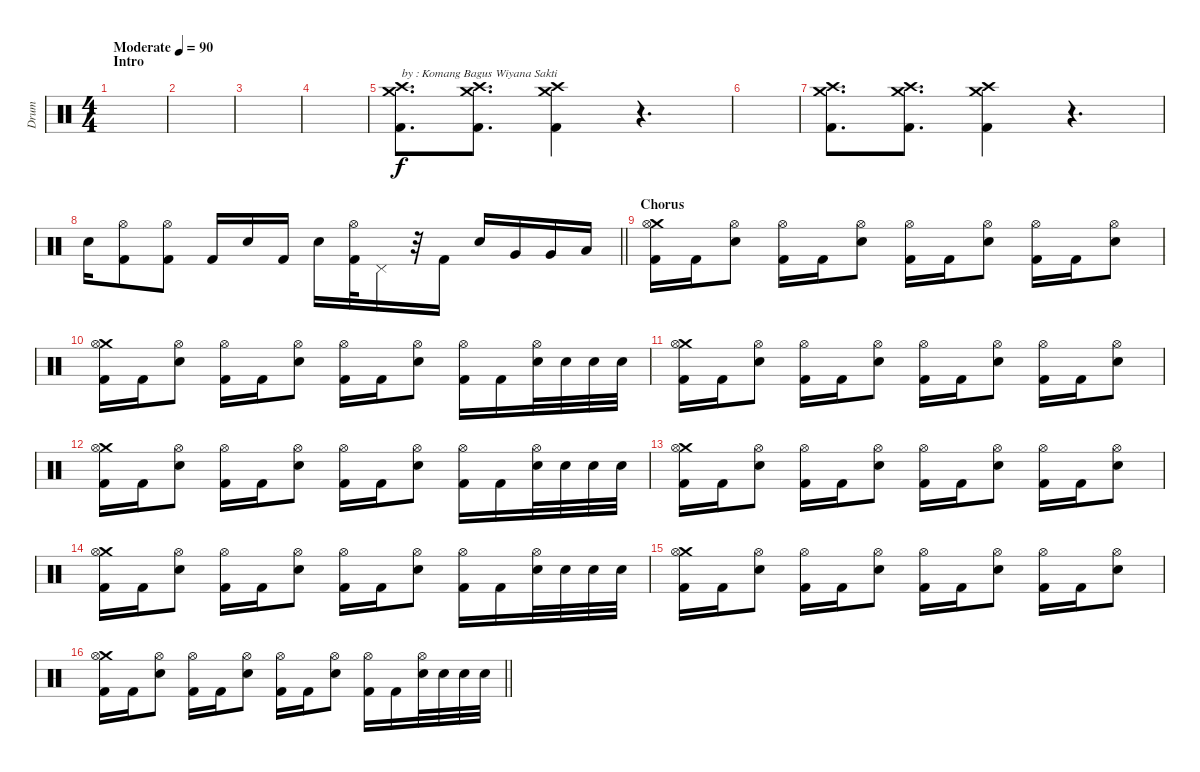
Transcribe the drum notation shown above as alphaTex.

\track ("Drum" "Drum") {instrument percussion}
\staff {score}
\articulation defaults
\ts (4 4)
\section ("" "Intro")
\tempo (90 "Moderate")
\clef neutral
\ks c
|
|
|
|
("Crash medium (hit)" "Crash high (hit)" "Kick (hit) 2").8{d txt "by : Komang Bagus Wiyana Sakti"} ("Crash medium (hit)" "Crash high (hit)" "Kick (hit) 2").8{d} ("Crash medium (hit)" "Crash high (hit)" "Kick (hit) 2").4 r.4{d} |
|
("Crash medium (hit)" "Crash high (hit)" "Kick (hit) 2").8{d} ("Crash medium (hit)" "Crash high (hit)" "Kick (hit) 2").8{d} ("Crash medium (hit)" "Crash high (hit)" "Kick (hit) 2").4 r.4{d} |
\barLineRight lightlight "Electric Snare (hit)".16
("Hi-Hat (open)" "Kick (hit) 2").8 ("Hi-Hat (open)" "Kick (hit) 2").8 "Kick (hit) 2".16 "Electric Snare (hit)".16 "Kick (hit) 2".16 "Electric Snare (hit)".16 ("Hi-Hat (open)" "Kick (hit) 2").32 "Pedal Hi-Hat (hit)".16 r.32 "Kick (hit) 2".16 "Electric Snare (hit)".16 "Very Low Tom (hit)".16 "Very Low Tom (hit)".16 "Low Tom (hit)".16 |
\section ("" "Chorus")
("Crash medium (hit)" "Hi-Hat (open)" "Kick (hit) 2").16 "Kick (hit) 2".16 ("Hi-Hat (open)" "Electric Snare (hit)").8 ("Hi-Hat (open)" "Kick (hit) 2").16 "Kick (hit) 2".16 ("Hi-Hat (open)" "Electric Snare (hit)").8 ("Hi-Hat (open)" "Kick (hit) 2").16 "Kick (hit) 2".16 ("Hi-Hat (open)" "Electric Snare (hit)").8 ("Hi-Hat (open)" "Kick (hit) 2").16 "Kick (hit) 2".16 ("Hi-Hat (open)" "Electric Snare (hit)").8 |
("Crash medium (hit)" "Hi-Hat (open)" "Kick (hit) 2").16 "Kick (hit) 2".16 ("Hi-Hat (open)" "Electric Snare (hit)").8 ("Hi-Hat (open)" "Kick (hit) 2").16 "Kick (hit) 2".16 ("Hi-Hat (open)" "Electric Snare (hit)").8 ("Hi-Hat (open)" "Kick (hit) 2").16 "Kick (hit) 2".16 ("Hi-Hat (open)" "Electric Snare (hit)").8 ("Hi-Hat (open)" "Kick (hit) 2").16 "Kick (hit) 2".16 ("Hi-Hat (open)" "Electric Snare (hit)").32 "Electric Snare (hit)".32 "Electric Snare (hit)".32 "Electric Snare (hit)".32 |
("Crash medium (hit)" "Hi-Hat (open)" "Kick (hit) 2").16 "Kick (hit) 2".16 ("Hi-Hat (open)" "Electric Snare (hit)").8 ("Hi-Hat (open)" "Kick (hit) 2").16 "Kick (hit) 2".16 ("Hi-Hat (open)" "Electric Snare (hit)").8 ("Hi-Hat (open)" "Kick (hit) 2").16 "Kick (hit) 2".16 ("Hi-Hat (open)" "Electric Snare (hit)").8 ("Hi-Hat (open)" "Kick (hit) 2").16 "Kick (hit) 2".16 ("Hi-Hat (open)" "Electric Snare (hit)").8 |
("Crash medium (hit)" "Hi-Hat (open)" "Kick (hit) 2").16 "Kick (hit) 2".16 ("Hi-Hat (open)" "Electric Snare (hit)").8 ("Hi-Hat (open)" "Kick (hit) 2").16 "Kick (hit) 2".16 ("Hi-Hat (open)" "Electric Snare (hit)").8 ("Hi-Hat (open)" "Kick (hit) 2").16 "Kick (hit) 2".16 ("Hi-Hat (open)" "Electric Snare (hit)").8 ("Hi-Hat (open)" "Kick (hit) 2").16 "Kick (hit) 2".16 ("Hi-Hat (open)" "Electric Snare (hit)").32 "Electric Snare (hit)".32 "Electric Snare (hit)".32 "Electric Snare (hit)".32 |
("Crash medium (hit)" "Hi-Hat (open)" "Kick (hit) 2").16 "Kick (hit) 2".16 ("Hi-Hat (open)" "Electric Snare (hit)").8 ("Hi-Hat (open)" "Kick (hit) 2").16 "Kick (hit) 2".16 ("Hi-Hat (open)" "Electric Snare (hit)").8 ("Hi-Hat (open)" "Kick (hit) 2").16 "Kick (hit) 2".16 ("Hi-Hat (open)" "Electric Snare (hit)").8 ("Hi-Hat (open)" "Kick (hit) 2").16 "Kick (hit) 2".16 ("Hi-Hat (open)" "Electric Snare (hit)").8 |
("Crash medium (hit)" "Hi-Hat (open)" "Kick (hit) 2").16 "Kick (hit) 2".16 ("Hi-Hat (open)" "Electric Snare (hit)").8 ("Hi-Hat (open)" "Kick (hit) 2").16 "Kick (hit) 2".16 ("Hi-Hat (open)" "Electric Snare (hit)").8 ("Hi-Hat (open)" "Kick (hit) 2").16 "Kick (hit) 2".16 ("Hi-Hat (open)" "Electric Snare (hit)").8 ("Hi-Hat (open)" "Kick (hit) 2").16 "Kick (hit) 2".16 ("Hi-Hat (open)" "Electric Snare (hit)").32 "Electric Snare (hit)".32 "Electric Snare (hit)".32 "Electric Snare (hit)".32 |
("Crash medium (hit)" "Hi-Hat (open)" "Kick (hit) 2").16 "Kick (hit) 2".16 ("Hi-Hat (open)" "Electric Snare (hit)").8 ("Hi-Hat (open)" "Kick (hit) 2").16 "Kick (hit) 2".16 ("Hi-Hat (open)" "Electric Snare (hit)").8 ("Hi-Hat (open)" "Kick (hit) 2").16 "Kick (hit) 2".16 ("Hi-Hat (open)" "Electric Snare (hit)").8 ("Hi-Hat (open)" "Kick (hit) 2").16 "Kick (hit) 2".16 ("Hi-Hat (open)" "Electric Snare (hit)").8 |
\barLineRight lightlight
("Crash medium (hit)" "Hi-Hat (open)" "Kick (hit) 2").16 "Kick (hit) 2".16 ("Hi-Hat (open)" "Electric Snare (hit)").8 ("Hi-Hat (open)" "Kick (hit) 2").16 "Kick (hit) 2".16 ("Hi-Hat (open)" "Electric Snare (hit)").8 ("Hi-Hat (open)" "Kick (hit) 2").16 "Kick (hit) 2".16 ("Hi-Hat (open)" "Electric Snare (hit)").8 ("Hi-Hat (open)" "Kick (hit) 2").16 "Kick (hit) 2".16 ("Hi-Hat (open)" "Electric Snare (hit)").32 "Electric Snare (hit)".32 "Electric Snare (hit)".32 "Electric Snare (hit)".32
